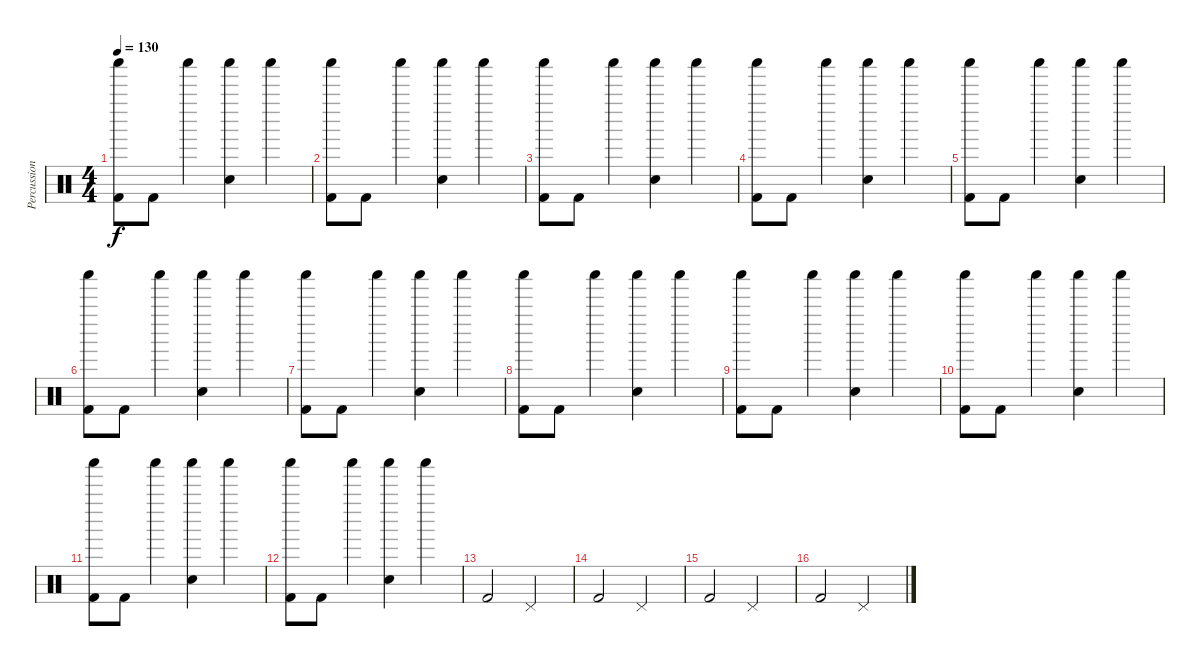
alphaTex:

\track ("Percussion" "Percussion") {instrument percussion}
\staff {score}
\articulation defaults
\ts (4 4)
\tempo 130
\clef neutral
\ks c
("Shaker (hit)" "Kick (hit) 2").8{dy f} "Kick (hit) 2".8 "Shaker (hit)".4 ("Shaker (hit)" "Snare (hit) 2").4 "Shaker (hit)".4 |
("Shaker (hit)" "Kick (hit) 2").8 "Kick (hit) 2".8 "Shaker (hit)".4 ("Shaker (hit)" "Snare (hit) 2").4 "Shaker (hit)".4 |
("Shaker (hit)" "Kick (hit) 2").8 "Kick (hit) 2".8 "Shaker (hit)".4 ("Shaker (hit)" "Snare (hit) 2").4 "Shaker (hit)".4 |
("Shaker (hit)" "Kick (hit) 2").8 "Kick (hit) 2".8 "Shaker (hit)".4 ("Shaker (hit)" "Snare (hit) 2").4 "Shaker (hit)".4 |
("Shaker (hit)" "Kick (hit) 2").8 "Kick (hit) 2".8 "Shaker (hit)".4 ("Shaker (hit)" "Snare (hit) 2").4 "Shaker (hit)".4 |
("Shaker (hit)" "Kick (hit) 2").8 "Kick (hit) 2".8 "Shaker (hit)".4 ("Shaker (hit)" "Snare (hit) 2").4 "Shaker (hit)".4 |
("Shaker (hit)" "Kick (hit) 2").8 "Kick (hit) 2".8 "Shaker (hit)".4 ("Shaker (hit)" "Snare (hit) 2").4 "Shaker (hit)".4 |
("Shaker (hit)" "Kick (hit) 2").8 "Kick (hit) 2".8 "Shaker (hit)".4 ("Shaker (hit)" "Snare (hit) 2").4 "Shaker (hit)".4 |
("Shaker (hit)" "Kick (hit) 2").8 "Kick (hit) 2".8 "Shaker (hit)".4 ("Shaker (hit)" "Snare (hit) 2").4 "Shaker (hit)".4 |
("Shaker (hit)" "Kick (hit) 2").8 "Kick (hit) 2".8 "Shaker (hit)".4 ("Shaker (hit)" "Snare (hit) 2").4 "Shaker (hit)".4 |
("Shaker (hit)" "Kick (hit) 2").8 "Kick (hit) 2".8 "Shaker (hit)".4 ("Shaker (hit)" "Snare (hit) 2").4 "Shaker (hit)".4 |
("Shaker (hit)" "Kick (hit) 2").8 "Kick (hit) 2".8 "Shaker (hit)".4 ("Shaker (hit)" "Snare (hit) 2").4 "Shaker (hit)".4 |
"Kick (hit) 2".2 "Pedal Hi-Hat (hit)".2 |
"Kick (hit) 2".2 "Pedal Hi-Hat (hit)".2 |
"Kick (hit) 2".2 "Pedal Hi-Hat (hit)".2 |
"Kick (hit) 2".2 "Pedal Hi-Hat (hit)".2
